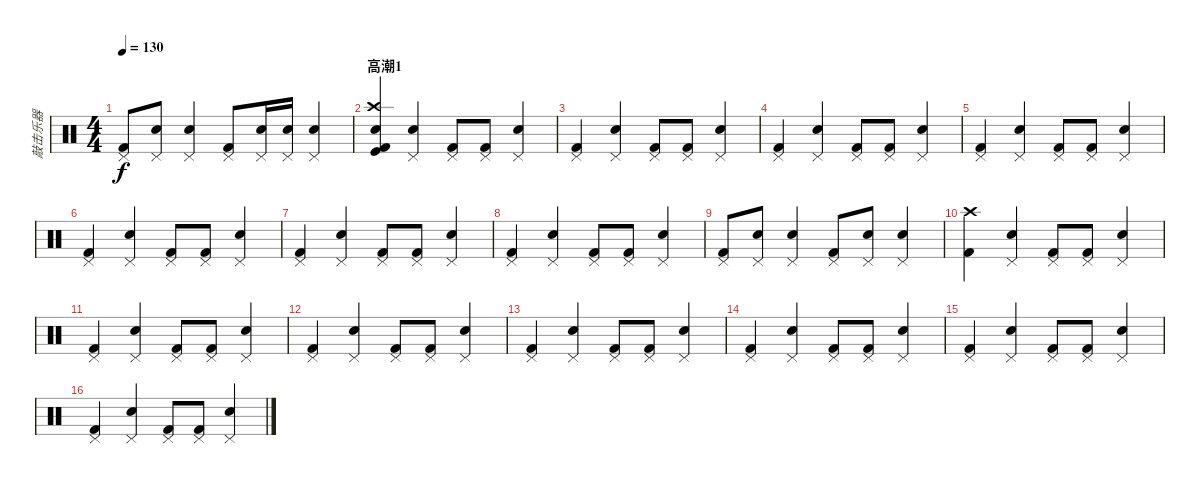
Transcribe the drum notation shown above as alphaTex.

\track ("敲击乐器" "敲击乐器") {instrument percussion}
\staff {score}
\articulation defaults
\ts (4 4)
\tempo 130
\clef neutral
\ks c
("Kick (hit) 2" "Pedal Hi-Hat (hit)").8{dy f} ("Snare (hit) 2" "Pedal Hi-Hat (hit)").8 ("Snare (hit) 2" "Pedal Hi-Hat (hit)").4 ("Kick (hit) 2" "Pedal Hi-Hat (hit)").8 ("Snare (hit) 2" "Pedal Hi-Hat (hit)").16 ("Snare (hit) 2" "Pedal Hi-Hat (hit)").16 ("Snare (hit) 2" "Pedal Hi-Hat (hit)").4 |
\section ("" "高潮1")
("Kick (hit) 2" "Crash high (hit)" "Kick (hit)" "Metronome (bell)").4 ("Snare (hit) 2" "Pedal Hi-Hat (hit)").4 ("Kick (hit) 2" "Pedal Hi-Hat (hit)").8 ("Kick (hit) 2" "Pedal Hi-Hat (hit)").8 ("Snare (hit) 2" "Pedal Hi-Hat (hit)").4 |
("Kick (hit) 2" "Pedal Hi-Hat (hit)").4 ("Snare (hit) 2" "Pedal Hi-Hat (hit)").4 ("Kick (hit) 2" "Pedal Hi-Hat (hit)").8 ("Kick (hit) 2" "Pedal Hi-Hat (hit)").8 ("Snare (hit) 2" "Pedal Hi-Hat (hit)").4 |
("Kick (hit) 2" "Pedal Hi-Hat (hit)").4 ("Snare (hit) 2" "Pedal Hi-Hat (hit)").4 ("Kick (hit) 2" "Pedal Hi-Hat (hit)").8 ("Kick (hit) 2" "Pedal Hi-Hat (hit)").8 ("Snare (hit) 2" "Pedal Hi-Hat (hit)").4 |
("Kick (hit) 2" "Pedal Hi-Hat (hit)").4 ("Snare (hit) 2" "Pedal Hi-Hat (hit)").4 ("Kick (hit) 2" "Pedal Hi-Hat (hit)").8 ("Kick (hit) 2" "Pedal Hi-Hat (hit)").8 ("Snare (hit) 2" "Pedal Hi-Hat (hit)").4 |
("Kick (hit) 2" "Pedal Hi-Hat (hit)").4 ("Snare (hit) 2" "Pedal Hi-Hat (hit)").4 ("Kick (hit) 2" "Pedal Hi-Hat (hit)").8 ("Kick (hit) 2" "Pedal Hi-Hat (hit)").8 ("Snare (hit) 2" "Pedal Hi-Hat (hit)").4 |
("Kick (hit) 2" "Pedal Hi-Hat (hit)").4 ("Snare (hit) 2" "Pedal Hi-Hat (hit)").4 ("Kick (hit) 2" "Pedal Hi-Hat (hit)").8 ("Kick (hit) 2" "Pedal Hi-Hat (hit)").8 ("Snare (hit) 2" "Pedal Hi-Hat (hit)").4 |
("Kick (hit) 2" "Pedal Hi-Hat (hit)").4 ("Snare (hit) 2" "Pedal Hi-Hat (hit)").4 ("Kick (hit) 2" "Pedal Hi-Hat (hit)").8 ("Kick (hit) 2" "Pedal Hi-Hat (hit)").8 ("Snare (hit) 2" "Pedal Hi-Hat (hit)").4 |
("Kick (hit) 2" "Pedal Hi-Hat (hit)").8 ("Snare (hit) 2" "Pedal Hi-Hat (hit)").8 ("Snare (hit) 2" "Pedal Hi-Hat (hit)").4 ("Kick (hit) 2" "Pedal Hi-Hat (hit)").8 ("Snare (hit) 2" "Pedal Hi-Hat (hit)").8 ("Snare (hit) 2" "Pedal Hi-Hat (hit)").4 |
("Kick (hit) 2" "Crash high (hit)").4 ("Snare (hit) 2" "Pedal Hi-Hat (hit)").4 ("Kick (hit) 2" "Pedal Hi-Hat (hit)").8 ("Kick (hit) 2" "Pedal Hi-Hat (hit)").8 ("Snare (hit) 2" "Pedal Hi-Hat (hit)").4 |
("Kick (hit) 2" "Pedal Hi-Hat (hit)").4 ("Snare (hit) 2" "Pedal Hi-Hat (hit)").4 ("Kick (hit) 2" "Pedal Hi-Hat (hit)").8 ("Kick (hit) 2" "Pedal Hi-Hat (hit)").8 ("Snare (hit) 2" "Pedal Hi-Hat (hit)").4 |
("Kick (hit) 2" "Pedal Hi-Hat (hit)").4 ("Snare (hit) 2" "Pedal Hi-Hat (hit)").4 ("Kick (hit) 2" "Pedal Hi-Hat (hit)").8 ("Kick (hit) 2" "Pedal Hi-Hat (hit)").8 ("Snare (hit) 2" "Pedal Hi-Hat (hit)").4 |
("Kick (hit) 2" "Pedal Hi-Hat (hit)").4 ("Snare (hit) 2" "Pedal Hi-Hat (hit)").4 ("Kick (hit) 2" "Pedal Hi-Hat (hit)").8 ("Kick (hit) 2" "Pedal Hi-Hat (hit)").8 ("Snare (hit) 2" "Pedal Hi-Hat (hit)").4 |
("Kick (hit) 2" "Pedal Hi-Hat (hit)").4 ("Snare (hit) 2" "Pedal Hi-Hat (hit)").4 ("Kick (hit) 2" "Pedal Hi-Hat (hit)").8 ("Kick (hit) 2" "Pedal Hi-Hat (hit)").8 ("Snare (hit) 2" "Pedal Hi-Hat (hit)").4 |
("Kick (hit) 2" "Pedal Hi-Hat (hit)").4 ("Snare (hit) 2" "Pedal Hi-Hat (hit)").4 ("Kick (hit) 2" "Pedal Hi-Hat (hit)").8 ("Kick (hit) 2" "Pedal Hi-Hat (hit)").8 ("Snare (hit) 2" "Pedal Hi-Hat (hit)").4 |
("Kick (hit) 2" "Pedal Hi-Hat (hit)").4 ("Snare (hit) 2" "Pedal Hi-Hat (hit)").4 ("Kick (hit) 2" "Pedal Hi-Hat (hit)").8 ("Kick (hit) 2" "Pedal Hi-Hat (hit)").8 ("Snare (hit) 2" "Pedal Hi-Hat (hit)").4
